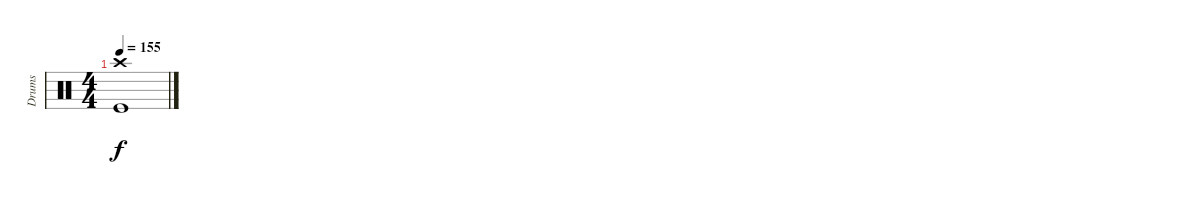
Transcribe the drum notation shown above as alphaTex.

\track ("Drums" "Drums") {instrument percussion}
\staff {score}
\articulation defaults
\ts (4 4)
\tempo 155
\clef neutral
\ks c
("Crash high (hit)" "Kick (hit)").1{dy f}
